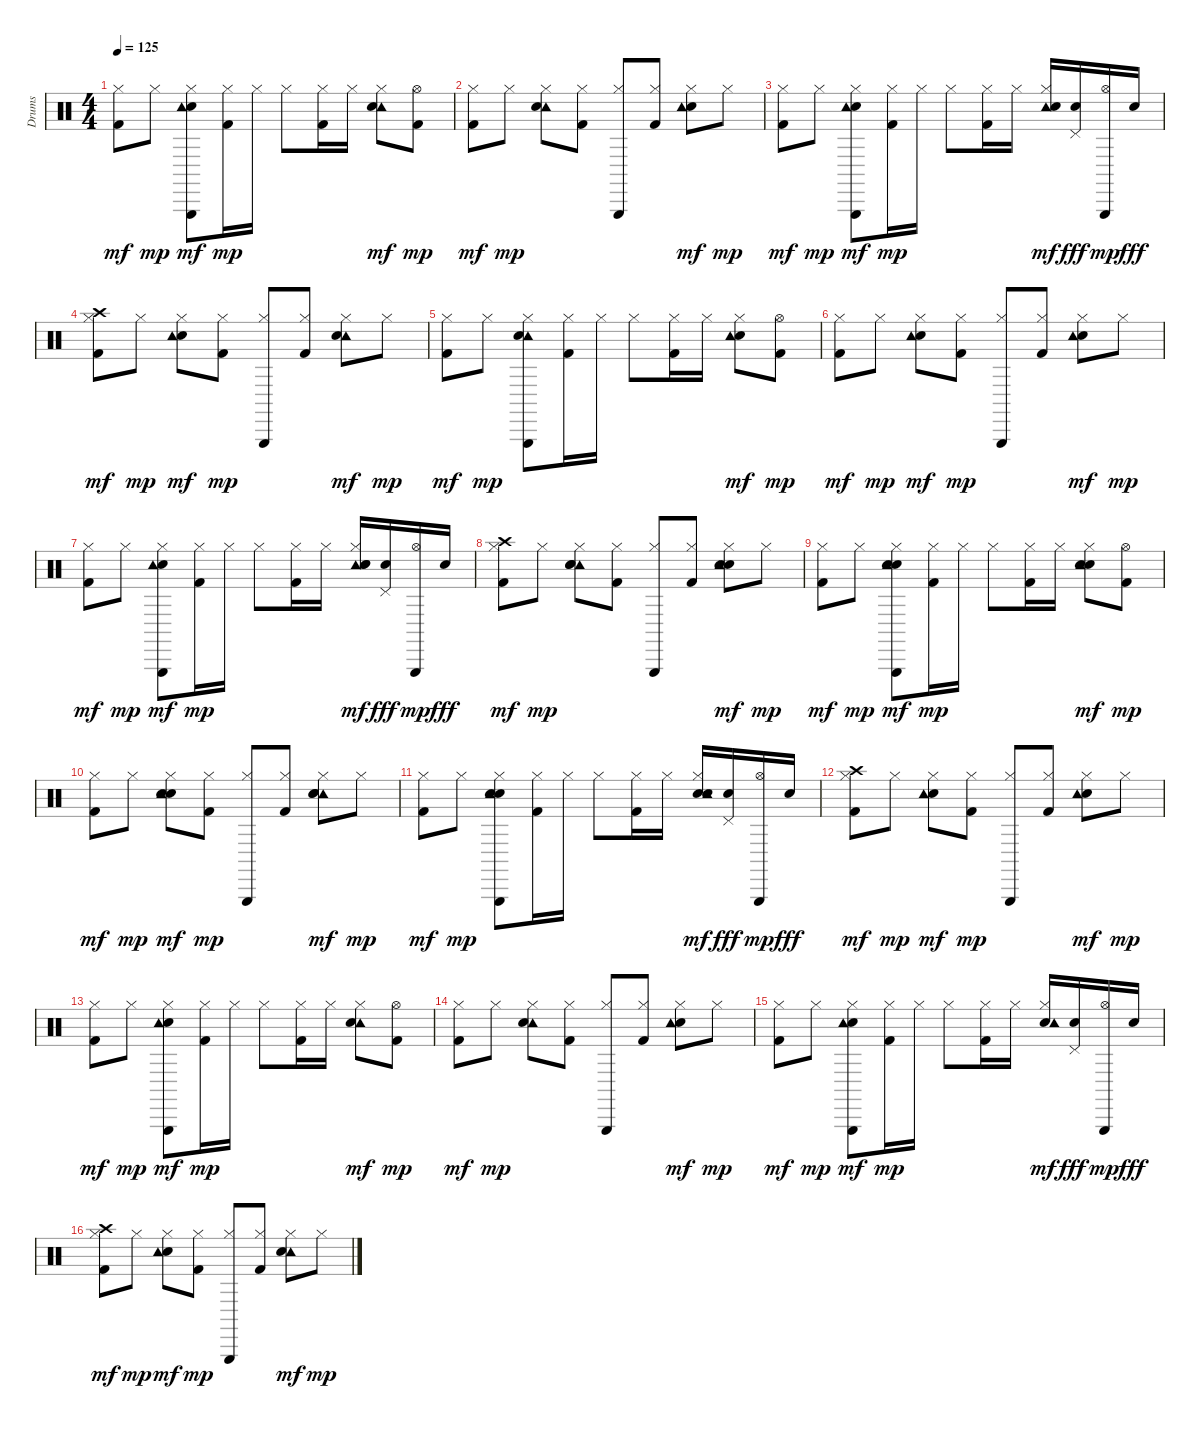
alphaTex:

\track ("Drums" "Drums") {instrument percussion}
\staff {score}
\articulation defaults
\ts (4 4)
\tempo 125
\clef neutral
\ks c
("Kick (hit) 2" "Hi-Hat (closed)").8{dy mf} "Hi-Hat (closed)".8{dy mp} ("Triangle (hit)" "Hi-Hat (closed)" "Electric Snare (hit)" "Tambourine (hit)").8{dy mf} ("Kick (hit) 2" "Hi-Hat (closed)").16{dy mp} "Hi-Hat (closed)".16 "Hi-Hat (closed)".8 ("Hi-Hat (closed)" "Kick (hit) 2").16 "Hi-Hat (closed)".16 ("Tambourine (hit)" "Electric Snare (hit)" "Hi-Hat (closed)").8{dy mf} ("Hi-Hat (open)" "Kick (hit) 2").8{dy mp} |
("Kick (hit) 2" "Hi-Hat (closed)").8{dy mf} "Hi-Hat (closed)".8{dy mp} ("Tambourine (hit)" "Electric Snare (hit)" "Hi-Hat (closed)").8 ("Kick (hit) 2" "Hi-Hat (closed)").8 ("Triangle (hit)" "Hi-Hat (closed)").8 ("Hi-Hat (closed)" "Kick (hit) 2").8 ("Hi-Hat (closed)" "Electric Snare (hit)" "Tambourine (hit)").8{dy mf} "Hi-Hat (closed)".8{dy mp} |
("Hi-Hat (closed)" "Kick (hit) 2").8{dy mf} "Hi-Hat (closed)".8{dy mp} ("Triangle (hit)" "Hi-Hat (closed)" "Electric Snare (hit)" "Tambourine (hit)").8{dy mf} ("Hi-Hat (closed)" "Kick (hit) 2").16{dy mp} "Hi-Hat (closed)".16 "Hi-Hat (closed)".8 ("Hi-Hat (closed)" "Kick (hit) 2").16 "Hi-Hat (closed)".16 ("Tambourine (hit)" "Electric Snare (hit)" "Hi-Hat (closed)").16{dy mf} ("Electric Snare (hit)" "Pedal Hi-Hat (hit)").16{dy fff} ("Triangle (hit)" "Hi-Hat (open)").16{dy mp} "Electric Snare (hit)".16{dy fff} |
("Hi-Hat (closed)" "Kick (hit) 2" "Crash high (hit)").8{dy mf} "Hi-Hat (closed)".8{dy mp} ("Hi-Hat (closed)" "Electric Snare (hit)" "Tambourine (hit)").8{dy mf} ("Hi-Hat (closed)" "Kick (hit) 2").8{dy mp} ("Triangle (hit)" "Hi-Hat (closed)").8 ("Kick (hit) 2" "Hi-Hat (closed)").8 ("Tambourine (hit)" "Electric Snare (hit)" "Hi-Hat (closed)").8{dy mf} "Hi-Hat (closed)".8{dy mp} |
("Kick (hit) 2" "Hi-Hat (closed)").8{dy mf} "Hi-Hat (closed)".8{dy mp} ("Triangle (hit)" "Tambourine (hit)" "Electric Snare (hit)" "Hi-Hat (closed)").8 ("Hi-Hat (closed)" "Kick (hit) 2").16 "Hi-Hat (closed)".16 "Hi-Hat (closed)".8 ("Kick (hit) 2" "Hi-Hat (closed)").16 "Hi-Hat (closed)".16 ("Hi-Hat (closed)" "Electric Snare (hit)" "Tambourine (hit)").8{dy mf} ("Hi-Hat (open)" "Kick (hit) 2").8{dy mp} |
("Kick (hit) 2" "Hi-Hat (closed)").8{dy mf} "Hi-Hat (closed)".8{dy mp} ("Hi-Hat (closed)" "Electric Snare (hit)" "Tambourine (hit)").8{dy mf} ("Kick (hit) 2" "Hi-Hat (closed)").8{dy mp} ("Triangle (hit)" "Hi-Hat (closed)").8 ("Kick (hit) 2" "Hi-Hat (closed)").8 ("Hi-Hat (closed)" "Electric Snare (hit)" "Tambourine (hit)").8{dy mf} "Hi-Hat (closed)".8{dy mp} |
("Kick (hit) 2" "Hi-Hat (closed)").8{dy mf} "Hi-Hat (closed)".8{dy mp} ("Triangle (hit)" "Hi-Hat (closed)" "Electric Snare (hit)" "Tambourine (hit)").8{dy mf} ("Kick (hit) 2" "Hi-Hat (closed)").16{dy mp} "Hi-Hat (closed)".16 "Hi-Hat (closed)".8 ("Hi-Hat (closed)" "Kick (hit) 2").16 "Hi-Hat (closed)".16 ("Tambourine (hit)" "Electric Snare (hit)" "Hi-Hat (closed)" "Hand Clap (hit)").16{dy mf} ("Pedal Hi-Hat (hit)" "Electric Snare (hit)").16{dy fff} ("Triangle (hit)" "Hi-Hat (open)").16{dy mp} "Electric Snare (hit)".16{dy fff} |
("Hi-Hat (closed)" "Kick (hit) 2" "Crash high (hit)").8{dy mf} "Hi-Hat (closed)".8{dy mp} ("Tambourine (hit)" "Electric Snare (hit)" "Hi-Hat (closed)" "Hand Clap (hit)").8 ("Kick (hit) 2" "Hi-Hat (closed)").8 ("Hi-Hat (closed)" "Triangle (hit)").8 ("Hi-Hat (closed)" "Kick (hit) 2").8 ("Hand Clap (hit)" "Hi-Hat (closed)" "Electric Snare (hit)" "Tambourine (hit)").8{dy mf} "Hi-Hat (closed)".8{dy mp} |
("Hi-Hat (closed)" "Kick (hit) 2").8{dy mf} "Hi-Hat (closed)".8{dy mp} ("Triangle (hit)" "Hi-Hat (closed)" "Electric Snare (hit)" "Tambourine (hit)" "Hand Clap (hit)").8{dy mf} ("Hi-Hat (closed)" "Kick (hit) 2").16{dy mp} "Hi-Hat (closed)".16 "Hi-Hat (closed)".8 ("Hi-Hat (closed)" "Kick (hit) 2").16 "Hi-Hat (closed)".16 ("Hi-Hat (closed)" "Electric Snare (hit)" "Tambourine (hit)" "Hand Clap (hit)").8{dy mf} ("Kick (hit) 2" "Hi-Hat (open)").8{dy mp} |
("Hi-Hat (closed)" "Kick (hit) 2").8{dy mf} "Hi-Hat (closed)".8{dy mp} ("Hand Clap (hit)" "Hi-Hat (closed)" "Electric Snare (hit)" "Tambourine (hit)").8{dy mf} ("Hi-Hat (closed)" "Kick (hit) 2").8{dy mp} ("Hi-Hat (closed)" "Triangle (hit)").8 ("Kick (hit) 2" "Hi-Hat (closed)").8 ("Tambourine (hit)" "Electric Snare (hit)" "Hi-Hat (closed)" "Hand Clap (hit)").8{dy mf} "Hi-Hat (closed)".8{dy mp} |
("Kick (hit) 2" "Hi-Hat (closed)").8{dy mf} "Hi-Hat (closed)".8{dy mp} ("Hand Clap (hit)" "Tambourine (hit)" "Electric Snare (hit)" "Hi-Hat (closed)" "Triangle (hit)").8 ("Hi-Hat (closed)" "Kick (hit) 2").16 "Hi-Hat (closed)".16 "Hi-Hat (closed)".8 ("Kick (hit) 2" "Hi-Hat (closed)").16 "Hi-Hat (closed)".16 ("Hi-Hat (closed)" "Electric Snare (hit)" "Tambourine (hit)" "Hand Clap (hit)").16{dy mf} ("Electric Snare (hit)" "Pedal Hi-Hat (hit)").16{dy fff} ("Triangle (hit)" "Hi-Hat (open)").16{dy mp} "Electric Snare (hit)".16{dy fff} |
("Crash high (hit)" "Kick (hit) 2" "Hi-Hat (closed)").8{dy mf} "Hi-Hat (closed)".8{dy mp} ("Hi-Hat (closed)" "Electric Snare (hit)" "Tambourine (hit)").8{dy mf} ("Kick (hit) 2" "Hi-Hat (closed)").8{dy mp} ("Triangle (hit)" "Hi-Hat (closed)").8 ("Kick (hit) 2" "Hi-Hat (closed)").8 ("Hi-Hat (closed)" "Electric Snare (hit)" "Tambourine (hit)").8{dy mf} "Hi-Hat (closed)".8{dy mp} |
("Kick (hit) 2" "Hi-Hat (closed)").8{dy mf} "Hi-Hat (closed)".8{dy mp} ("Triangle (hit)" "Hi-Hat (closed)" "Electric Snare (hit)" "Tambourine (hit)").8{dy mf} ("Kick (hit) 2" "Hi-Hat (closed)").16{dy mp} "Hi-Hat (closed)".16 "Hi-Hat (closed)".8 ("Hi-Hat (closed)" "Kick (hit) 2").16 "Hi-Hat (closed)".16 ("Tambourine (hit)" "Electric Snare (hit)" "Hi-Hat (closed)").8{dy mf} ("Hi-Hat (open)" "Kick (hit) 2").8{dy mp} |
("Kick (hit) 2" "Hi-Hat (closed)").8{dy mf} "Hi-Hat (closed)".8{dy mp} ("Tambourine (hit)" "Electric Snare (hit)" "Hi-Hat (closed)").8 ("Kick (hit) 2" "Hi-Hat (closed)").8 ("Hi-Hat (closed)" "Triangle (hit)").8 ("Hi-Hat (closed)" "Kick (hit) 2").8 ("Hi-Hat (closed)" "Electric Snare (hit)" "Tambourine (hit)").8{dy mf} "Hi-Hat (closed)".8{dy mp} |
("Hi-Hat (closed)" "Kick (hit) 2").8{dy mf} "Hi-Hat (closed)".8{dy mp} ("Triangle (hit)" "Hi-Hat (closed)" "Electric Snare (hit)" "Tambourine (hit)").8{dy mf} ("Hi-Hat (closed)" "Kick (hit) 2").16{dy mp} "Hi-Hat (closed)".16 "Hi-Hat (closed)".8 ("Hi-Hat (closed)" "Kick (hit) 2").16 "Hi-Hat (closed)".16 ("Hi-Hat (closed)" "Electric Snare (hit)" "Tambourine (hit)").16{dy mf} ("Pedal Hi-Hat (hit)" "Electric Snare (hit)").16{dy fff} ("Hi-Hat (open)" "Triangle (hit)").16{dy mp} "Electric Snare (hit)".16{dy fff} |
("Hi-Hat (closed)" "Kick (hit) 2" "Crash high (hit)").8{dy mf} "Hi-Hat (closed)".8{dy mp} ("Hi-Hat (closed)" "Electric Snare (hit)" "Tambourine (hit)").8{dy mf} ("Hi-Hat (closed)" "Kick (hit) 2").8{dy mp} ("Hi-Hat (closed)" "Triangle (hit)").8 ("Kick (hit) 2" "Hi-Hat (closed)").8 ("Tambourine (hit)" "Electric Snare (hit)" "Hi-Hat (closed)").8{dy mf} "Hi-Hat (closed)".8{dy mp}
